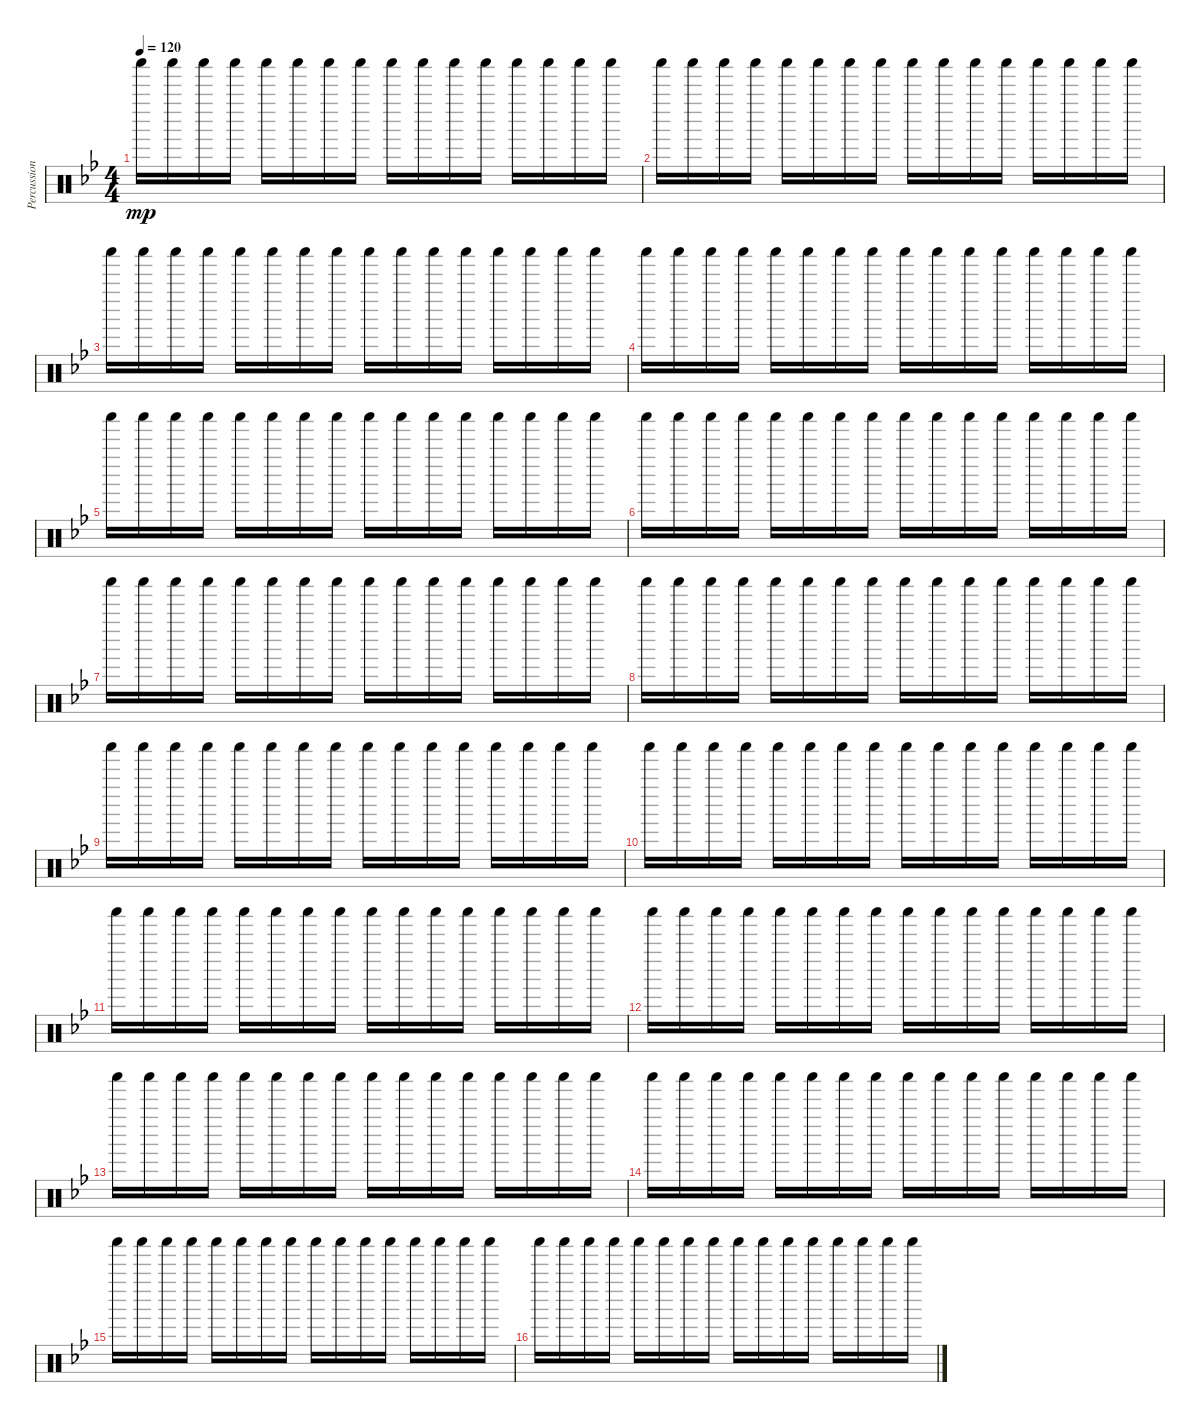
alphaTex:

\track ("Percussion" "Percussion") {instrument percussion}
\staff {score}
\articulation defaults
\ts (4 4)
\tempo 120
\clef neutral
\ks bb "Shaker (hit)".16{dy mp} "Shaker (hit)".16 "Shaker (hit)".16 "Shaker (hit)".16 "Shaker (hit)".16 "Shaker (hit)".16 "Shaker (hit)".16 "Shaker (hit)".16 "Shaker (hit)".16 "Shaker (hit)".16 "Shaker (hit)".16 "Shaker (hit)".16 "Shaker (hit)".16 "Shaker (hit)".16 "Shaker (hit)".16 "Shaker (hit)".16
|
"Shaker (hit)".16 "Shaker (hit)".16 "Shaker (hit)".16 "Shaker (hit)".16 "Shaker (hit)".16 "Shaker (hit)".16 "Shaker (hit)".16 "Shaker (hit)".16 "Shaker (hit)".16 "Shaker (hit)".16 "Shaker (hit)".16 "Shaker (hit)".16 "Shaker (hit)".16 "Shaker (hit)".16 "Shaker (hit)".16 "Shaker (hit)".16 |
"Shaker (hit)".16 "Shaker (hit)".16 "Shaker (hit)".16 "Shaker (hit)".16 "Shaker (hit)".16 "Shaker (hit)".16 "Shaker (hit)".16 "Shaker (hit)".16 "Shaker (hit)".16 "Shaker (hit)".16 "Shaker (hit)".16 "Shaker (hit)".16 "Shaker (hit)".16 "Shaker (hit)".16 "Shaker (hit)".16 "Shaker (hit)".16 |
"Shaker (hit)".16 "Shaker (hit)".16 "Shaker (hit)".16 "Shaker (hit)".16 "Shaker (hit)".16 "Shaker (hit)".16 "Shaker (hit)".16 "Shaker (hit)".16 "Shaker (hit)".16 "Shaker (hit)".16 "Shaker (hit)".16 "Shaker (hit)".16 "Shaker (hit)".16 "Shaker (hit)".16 "Shaker (hit)".16 "Shaker (hit)".16 |
"Shaker (hit)".16 "Shaker (hit)".16 "Shaker (hit)".16 "Shaker (hit)".16 "Shaker (hit)".16 "Shaker (hit)".16 "Shaker (hit)".16 "Shaker (hit)".16 "Shaker (hit)".16 "Shaker (hit)".16 "Shaker (hit)".16 "Shaker (hit)".16 "Shaker (hit)".16 "Shaker (hit)".16 "Shaker (hit)".16 "Shaker (hit)".16 |
"Shaker (hit)".16 "Shaker (hit)".16 "Shaker (hit)".16 "Shaker (hit)".16 "Shaker (hit)".16 "Shaker (hit)".16 "Shaker (hit)".16 "Shaker (hit)".16 "Shaker (hit)".16 "Shaker (hit)".16 "Shaker (hit)".16 "Shaker (hit)".16 "Shaker (hit)".16 "Shaker (hit)".16 "Shaker (hit)".16 "Shaker (hit)".16 |
"Shaker (hit)".16 "Shaker (hit)".16 "Shaker (hit)".16 "Shaker (hit)".16 "Shaker (hit)".16 "Shaker (hit)".16 "Shaker (hit)".16 "Shaker (hit)".16 "Shaker (hit)".16 "Shaker (hit)".16 "Shaker (hit)".16 "Shaker (hit)".16 "Shaker (hit)".16 "Shaker (hit)".16 "Shaker (hit)".16 "Shaker (hit)".16 |
"Shaker (hit)".16 "Shaker (hit)".16 "Shaker (hit)".16 "Shaker (hit)".16 "Shaker (hit)".16 "Shaker (hit)".16 "Shaker (hit)".16 "Shaker (hit)".16 "Shaker (hit)".16 "Shaker (hit)".16 "Shaker (hit)".16 "Shaker (hit)".16 "Shaker (hit)".16 "Shaker (hit)".16 "Shaker (hit)".16 "Shaker (hit)".16 |
"Shaker (hit)".16 "Shaker (hit)".16 "Shaker (hit)".16 "Shaker (hit)".16 "Shaker (hit)".16 "Shaker (hit)".16 "Shaker (hit)".16 "Shaker (hit)".16 "Shaker (hit)".16 "Shaker (hit)".16 "Shaker (hit)".16 "Shaker (hit)".16 "Shaker (hit)".16 "Shaker (hit)".16 "Shaker (hit)".16 "Shaker (hit)".16 |
"Shaker (hit)".16 "Shaker (hit)".16 "Shaker (hit)".16 "Shaker (hit)".16 "Shaker (hit)".16 "Shaker (hit)".16 "Shaker (hit)".16 "Shaker (hit)".16 "Shaker (hit)".16 "Shaker (hit)".16 "Shaker (hit)".16 "Shaker (hit)".16 "Shaker (hit)".16 "Shaker (hit)".16 "Shaker (hit)".16 "Shaker (hit)".16 |
"Shaker (hit)".16 "Shaker (hit)".16 "Shaker (hit)".16 "Shaker (hit)".16 "Shaker (hit)".16 "Shaker (hit)".16 "Shaker (hit)".16 "Shaker (hit)".16 "Shaker (hit)".16 "Shaker (hit)".16 "Shaker (hit)".16 "Shaker (hit)".16 "Shaker (hit)".16 "Shaker (hit)".16 "Shaker (hit)".16 "Shaker (hit)".16 |
"Shaker (hit)".16 "Shaker (hit)".16 "Shaker (hit)".16 "Shaker (hit)".16 "Shaker (hit)".16 "Shaker (hit)".16 "Shaker (hit)".16 "Shaker (hit)".16 "Shaker (hit)".16 "Shaker (hit)".16 "Shaker (hit)".16 "Shaker (hit)".16 "Shaker (hit)".16 "Shaker (hit)".16 "Shaker (hit)".16 "Shaker (hit)".16 |
"Shaker (hit)".16 "Shaker (hit)".16 "Shaker (hit)".16 "Shaker (hit)".16 "Shaker (hit)".16 "Shaker (hit)".16 "Shaker (hit)".16 "Shaker (hit)".16 "Shaker (hit)".16 "Shaker (hit)".16 "Shaker (hit)".16 "Shaker (hit)".16 "Shaker (hit)".16 "Shaker (hit)".16 "Shaker (hit)".16 "Shaker (hit)".16 |
"Shaker (hit)".16 "Shaker (hit)".16 "Shaker (hit)".16 "Shaker (hit)".16 "Shaker (hit)".16 "Shaker (hit)".16 "Shaker (hit)".16 "Shaker (hit)".16 "Shaker (hit)".16 "Shaker (hit)".16 "Shaker (hit)".16 "Shaker (hit)".16 "Shaker (hit)".16 "Shaker (hit)".16 "Shaker (hit)".16 "Shaker (hit)".16 |
"Shaker (hit)".16 "Shaker (hit)".16 "Shaker (hit)".16 "Shaker (hit)".16 "Shaker (hit)".16 "Shaker (hit)".16 "Shaker (hit)".16 "Shaker (hit)".16 "Shaker (hit)".16 "Shaker (hit)".16 "Shaker (hit)".16 "Shaker (hit)".16 "Shaker (hit)".16 "Shaker (hit)".16 "Shaker (hit)".16 "Shaker (hit)".16 |
"Shaker (hit)".16 "Shaker (hit)".16 "Shaker (hit)".16 "Shaker (hit)".16 "Shaker (hit)".16 "Shaker (hit)".16 "Shaker (hit)".16 "Shaker (hit)".16 "Shaker (hit)".16 "Shaker (hit)".16 "Shaker (hit)".16 "Shaker (hit)".16 "Shaker (hit)".16 "Shaker (hit)".16 "Shaker (hit)".16 "Shaker (hit)".16
